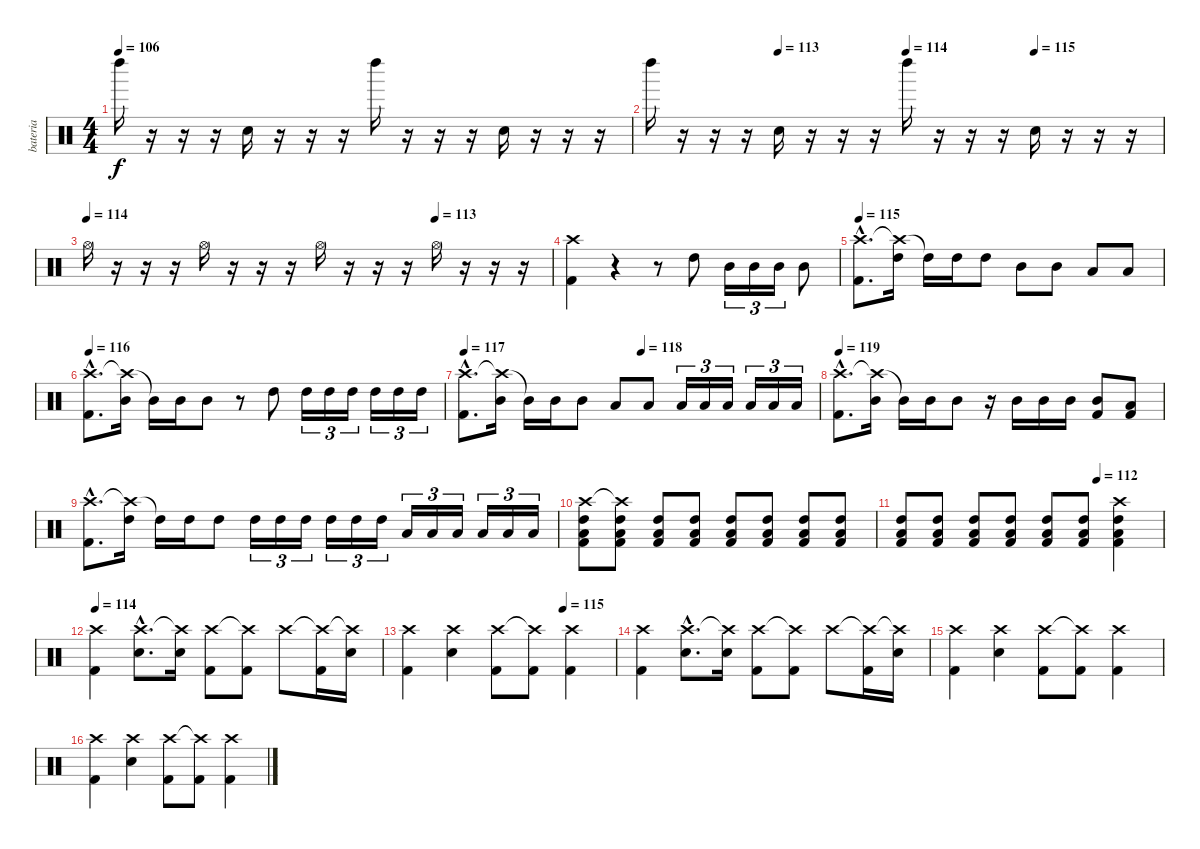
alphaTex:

\track ("bateria" "bateria") {instrument percussion}
\staff {score}
\articulation defaults
\ts (4 4)
\tempo 106
\clef neutral
\ks c "Left Maraca (hit)".16{dy f}
r.16 r.16 r.16 "Hand Clap (hit)".16 r.16 r.16 r.16 "Left Maraca (hit)".16 r.16 r.16 r.16 "Hand Clap (hit)".16 r.16 r.16 r.16 |
\tempo (113 0.25)
\tempo (114 0.5)
\tempo (115 0.75)
"Left Maraca (hit)".16 r.16 r.16 r.16 "Hand Clap (hit)".16 r.16 r.16 r.16 "Left Maraca (hit)".16 r.16 r.16 r.16 "Hand Clap (hit)".16 r.16 r.16 r.16 |
\tempo 114
\tempo (113 0.75)
"Hi-Hat (open)".16 r.16 r.16 r.16 "Hi-Hat (open)".16 r.16 r.16 r.16 "Hi-Hat (open)".16 r.16 r.16 r.16 "Hi-Hat (open)".16 r.16 r.16 r.16 |
("Crash high (hit)" "Kick (hit) 2").4 r.4 r.8 "High Tom (hit)".8 "Mid Tom (hit)".16{tu (3 2)} "Mid Tom (hit)".16{tu (3 2)} "Mid Tom (hit)".16{tu (3 2)} "Mid Tom (hit)".8 |
\tempo 115
("Crash high (hit)"{hac} "Kick (hit) 2"{hac}).8{d} ("Crash high (hit)"{t} "High Tom (hit)").16 "High Tom (hit)"{t}.16 "High Tom (hit)".16 "High Tom (hit)".8 "Mid Tom (hit)".8 "Mid Tom (hit)".8 "Low Tom (hit)".8 "Low Tom (hit)".8 |
\tempo 116
("Crash high (hit)"{hac} "Kick (hit) 2"{hac}).8{d} ("Crash high (hit)"{t} "Mid Tom (hit)").16 "Mid Tom (hit)"{t}.16 "Mid Tom (hit)".16 "Mid Tom (hit)".8 r.8 "High Tom (hit)".8 "High Tom (hit)".16{tu (3 2)} "High Tom (hit)".16{tu (3 2)} "High Tom (hit)".16{tu (3 2)} "High Tom (hit)".16{tu (3 2)} "High Tom (hit)".16{tu (3 2)} "High Tom (hit)".16{tu (3 2)} |
\tempo 117
\tempo (118 0.5)
("Crash high (hit)"{hac} "Kick (hit) 2"{hac}).8{d} ("Crash high (hit)"{t} "Mid Tom (hit)").16 "Mid Tom (hit)"{t}.16 "Mid Tom (hit)".16 "Mid Tom (hit)".8 "Low Tom (hit)".8 "Low Tom (hit)".8 "Low Tom (hit)".16{tu (3 2)} "Low Tom (hit)".16{tu (3 2)} "Low Tom (hit)".16{tu (3 2)} "Low Tom (hit)".16{tu (3 2)} "Low Tom (hit)".16{tu (3 2)} "Low Tom (hit)".16{tu (3 2)} |
\tempo 119
("Crash high (hit)"{hac} "Kick (hit) 2"{hac}).8{d} ("Crash high (hit)"{t} "Mid Tom (hit)").16 "Mid Tom (hit)"{t}.16 "Mid Tom (hit)".16 "Mid Tom (hit)".8 r.16 "Mid Tom (hit)".16 "Mid Tom (hit)".16 "Mid Tom (hit)".16 ("Mid Tom (hit)" "Kick (hit) 2").8 ("Low Tom (hit)" "Kick (hit) 2").8 |
("Crash high (hit)"{hac} "Kick (hit) 2"{hac}).8{d} ("Crash high (hit)"{t} "High Tom (hit)").16 "High Tom (hit)"{t}.16 "High Tom (hit)".16 "High Tom (hit)".8 "High Tom (hit)".16{tu (3 2)} "High Tom (hit)".16{tu (3 2)} "High Tom (hit)".16{tu (3 2)} "High Tom (hit)".16{tu (3 2)} "High Tom (hit)".16{tu (3 2)} "High Tom (hit)".16{tu (3 2)} "Low Tom (hit)".16{tu (3 2)} "Low Tom (hit)".16{tu (3 2)} "Low Tom (hit)".16{tu (3 2)} "Low Tom (hit)".16{tu (3 2)} "Low Tom (hit)".16{tu (3 2)} "Low Tom (hit)".16{tu (3 2)} |
("Crash high (hit)" "High Tom (hit)" "Kick (hit) 2" "Low Tom (hit)").8 ("Crash high (hit)"{t} "High Tom (hit)" "Kick (hit) 2" "Low Tom (hit)").8 ("High Tom (hit)" "Kick (hit) 2" "Low Tom (hit)").8 ("High Tom (hit)" "Kick (hit) 2" "Low Tom (hit)").8 ("High Tom (hit)" "Kick (hit) 2" "Low Tom (hit)").8 ("High Tom (hit)" "Kick (hit) 2" "Low Tom (hit)").8 ("High Tom (hit)" "Kick (hit) 2" "Low Tom (hit)").8 ("High Tom (hit)" "Kick (hit) 2" "Low Tom (hit)").8 |
\tempo (112 0.75)
("High Tom (hit)" "Kick (hit) 2" "Low Tom (hit)").8 ("High Tom (hit)" "Kick (hit) 2" "Low Tom (hit)").8 ("High Tom (hit)" "Kick (hit) 2" "Low Tom (hit)").8 ("High Tom (hit)" "Kick (hit) 2" "Low Tom (hit)").8 ("High Tom (hit)" "Kick (hit) 2" "Low Tom (hit)").8 ("High Tom (hit)" "Kick (hit) 2" "Low Tom (hit)").8 ("Crash high (hit)" "High Tom (hit)" "Kick (hit) 2" "Low Tom (hit)").4 |
\tempo 114
("Crash high (hit)" "Kick (hit) 2").4 ("Crash high (hit)"{hac} "Snare (hit) 2"{hac}).8{d} ("Crash high (hit)"{t} "Snare (hit) 2").16 ("Crash high (hit)" "Kick (hit) 2").8 ("Crash high (hit)"{t} "Kick (hit) 2").8 "Crash high (hit)".8 ("Crash high (hit)"{t} "Kick (hit) 2").16 ("Crash high (hit)"{t} "Snare (hit) 2").16 |
\tempo (115 0.75)
("Crash high (hit)" "Kick (hit) 2").4 ("Crash high (hit)" "Snare (hit) 2").4 ("Crash high (hit)" "Kick (hit) 2").8 ("Crash high (hit)"{t} "Kick (hit) 2").8 ("Crash high (hit)" "Kick (hit) 2").4 |
("Crash high (hit)" "Kick (hit) 2").4 ("Crash high (hit)"{hac} "Snare (hit) 2"{hac}).8{d} ("Crash high (hit)"{t} "Snare (hit) 2").16 ("Crash high (hit)" "Kick (hit) 2").8 ("Crash high (hit)"{t} "Kick (hit) 2").8 "Crash high (hit)".8 ("Crash high (hit)"{t} "Kick (hit) 2").16 ("Crash high (hit)"{t} "Snare (hit) 2").16 |
("Crash high (hit)" "Kick (hit) 2").4 ("Crash high (hit)" "Snare (hit) 2").4 ("Crash high (hit)" "Kick (hit) 2").8 ("Crash high (hit)"{t} "Kick (hit) 2").8 ("Crash high (hit)" "Kick (hit) 2").4 |
("Crash high (hit)" "Kick (hit) 2").4 ("Crash high (hit)" "Snare (hit) 2").4 ("Crash high (hit)" "Kick (hit) 2").8 ("Crash high (hit)"{t} "Kick (hit) 2").8 ("Crash high (hit)" "Kick (hit) 2").4
